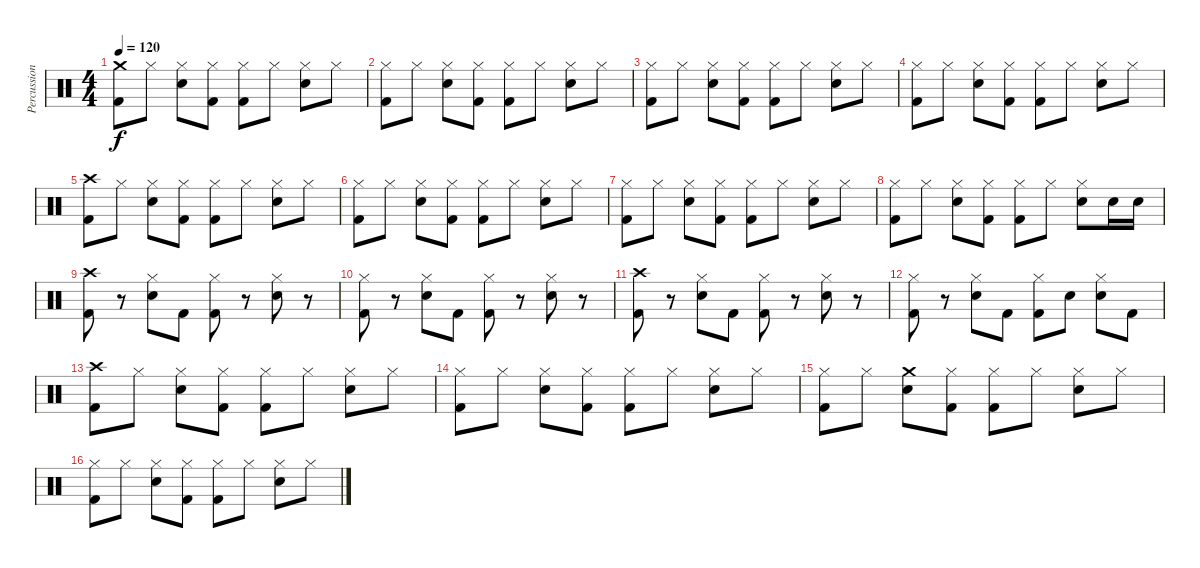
\track ("Percussion" "Percussion") {instrument percussion}
\staff {score}
\articulation defaults
\ts (4 4)
\tempo 120
\clef neutral
\ks c
("Crash medium (hit)" "Kick (hit) 2").8{dy f} "Hi-Hat (closed)".8 ("Hi-Hat (closed)" "Snare (hit) 2").8 ("Hi-Hat (closed)" "Kick (hit) 2").8 ("Hi-Hat (closed)" "Kick (hit) 2").8 "Hi-Hat (closed)".8 ("Hi-Hat (closed)" "Snare (hit) 2").8 "Hi-Hat (closed)".8 |
("Hi-Hat (closed)" "Kick (hit) 2").8 "Hi-Hat (closed)".8 ("Hi-Hat (closed)" "Snare (hit) 2").8 ("Hi-Hat (closed)" "Kick (hit) 2").8 ("Hi-Hat (closed)" "Kick (hit) 2").8 "Hi-Hat (closed)".8 ("Hi-Hat (closed)" "Snare (hit) 2").8 "Hi-Hat (closed)".8 |
("Hi-Hat (closed)" "Kick (hit) 2").8 "Hi-Hat (closed)".8 ("Hi-Hat (closed)" "Snare (hit) 2").8 ("Hi-Hat (closed)" "Kick (hit) 2").8 ("Hi-Hat (closed)" "Kick (hit) 2").8 "Hi-Hat (closed)".8 ("Hi-Hat (closed)" "Snare (hit) 2").8 "Hi-Hat (closed)".8 |
("Hi-Hat (closed)" "Kick (hit) 2").8 "Hi-Hat (closed)".8 ("Hi-Hat (closed)" "Snare (hit) 2").8 ("Hi-Hat (closed)" "Kick (hit) 2").8 ("Hi-Hat (closed)" "Kick (hit) 2").8 "Hi-Hat (closed)".8 ("Hi-Hat (closed)" "Snare (hit) 2").8 "Hi-Hat (closed)".8 |
("Crash high (hit)" "Kick (hit) 2").8 "Hi-Hat (closed)".8 ("Hi-Hat (closed)" "Snare (hit) 2").8 ("Hi-Hat (closed)" "Kick (hit) 2").8 ("Hi-Hat (closed)" "Kick (hit) 2").8 "Hi-Hat (closed)".8 ("Hi-Hat (closed)" "Snare (hit) 2").8 "Hi-Hat (closed)".8 |
("Hi-Hat (closed)" "Kick (hit) 2").8 "Hi-Hat (closed)".8 ("Hi-Hat (closed)" "Snare (hit) 2").8 ("Hi-Hat (closed)" "Kick (hit) 2").8 ("Hi-Hat (closed)" "Kick (hit) 2").8 "Hi-Hat (closed)".8 ("Hi-Hat (closed)" "Snare (hit) 2").8 "Hi-Hat (closed)".8 |
("Hi-Hat (closed)" "Kick (hit) 2").8 "Hi-Hat (closed)".8 ("Hi-Hat (closed)" "Snare (hit) 2").8 ("Hi-Hat (closed)" "Kick (hit) 2").8 ("Hi-Hat (closed)" "Kick (hit) 2").8 "Hi-Hat (closed)".8 ("Hi-Hat (closed)" "Snare (hit) 2").8 "Hi-Hat (closed)".8 |
("Hi-Hat (closed)" "Kick (hit) 2").8 "Hi-Hat (closed)".8 ("Hi-Hat (closed)" "Snare (hit) 2").8 ("Hi-Hat (closed)" "Kick (hit) 2").8 ("Hi-Hat (closed)" "Kick (hit) 2").8 "Hi-Hat (closed)".8 ("Hi-Hat (closed)" "Snare (hit) 2").8 "Snare (hit) 2".16 "Snare (hit) 2".16 |
("Crash high (hit)" "Kick (hit) 2").8 r.8 ("Hi-Hat (closed)" "Snare (hit) 2").8 "Kick (hit) 2".8 ("Hi-Hat (closed)" "Kick (hit) 2").8 r.8 ("Hi-Hat (closed)" "Snare (hit) 2").8 r.8 |
("Hi-Hat (closed)" "Kick (hit) 2").8 r.8 ("Hi-Hat (closed)" "Snare (hit) 2").8 "Kick (hit) 2".8 ("Hi-Hat (closed)" "Kick (hit) 2").8 r.8 ("Hi-Hat (closed)" "Snare (hit) 2").8 r.8 |
("Crash high (hit)" "Kick (hit) 2").8 r.8 ("Hi-Hat (closed)" "Snare (hit) 2").8 "Kick (hit) 2".8 ("Hi-Hat (closed)" "Kick (hit) 2").8 r.8 ("Hi-Hat (closed)" "Snare (hit) 2").8 r.8 |
("Hi-Hat (closed)" "Kick (hit) 2").8 r.8 ("Hi-Hat (closed)" "Snare (hit) 2").8 "Kick (hit) 2".8 ("Hi-Hat (closed)" "Kick (hit) 2").8 "Snare (hit) 2".8 ("Hi-Hat (closed)" "Snare (hit) 2").8 "Kick (hit) 2".8 |
("Crash high (hit)" "Kick (hit) 2").8 "Hi-Hat (closed)".8 ("Hi-Hat (closed)" "Snare (hit) 2").8 ("Hi-Hat (closed)" "Kick (hit) 2").8 ("Hi-Hat (closed)" "Kick (hit) 2").8 "Hi-Hat (closed)".8 ("Hi-Hat (closed)" "Snare (hit) 2").8 "Hi-Hat (closed)".8 |
("Hi-Hat (closed)" "Kick (hit) 2").8 "Hi-Hat (closed)".8 ("Hi-Hat (closed)" "Snare (hit) 2").8 ("Hi-Hat (closed)" "Kick (hit) 2").8 ("Hi-Hat (closed)" "Kick (hit) 2").8 "Hi-Hat (closed)".8 ("Hi-Hat (closed)" "Snare (hit) 2").8 "Hi-Hat (closed)".8 |
("Hi-Hat (closed)" "Kick (hit) 2").8 "Hi-Hat (closed)".8 ("Crash medium (hit)" "Snare (hit) 2").8 ("Hi-Hat (closed)" "Kick (hit) 2").8 ("Hi-Hat (closed)" "Kick (hit) 2").8 "Hi-Hat (closed)".8 ("Hi-Hat (closed)" "Snare (hit) 2").8 "Hi-Hat (closed)".8 |
("Hi-Hat (closed)" "Kick (hit) 2").8 "Hi-Hat (closed)".8 ("Hi-Hat (closed)" "Snare (hit) 2").8 ("Hi-Hat (closed)" "Kick (hit) 2").8 ("Hi-Hat (closed)" "Kick (hit) 2").8 "Hi-Hat (closed)".8 ("Hi-Hat (closed)" "Snare (hit) 2").8 "Hi-Hat (closed)".8
